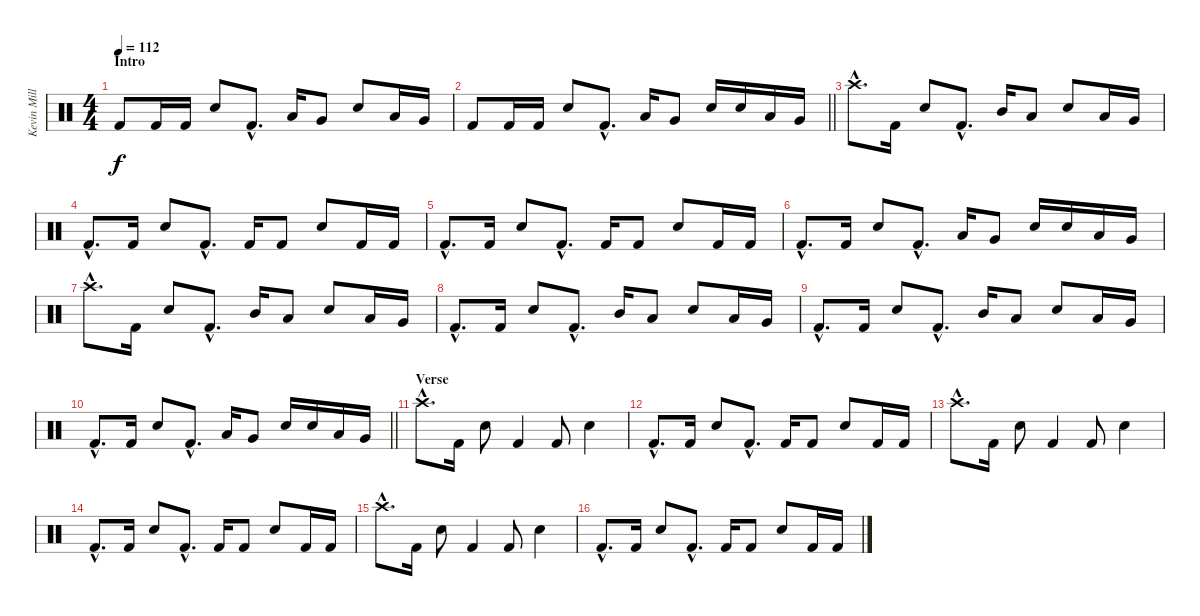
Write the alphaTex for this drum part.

\track ("Kevin Miller (Drums)" "Kevin Mill") {instrument percussion}
\staff {score}
\articulation defaults
\ts (4 4)
\section ("" "Intro")
\tempo 112
\clef neutral
\ks c "Kick (hit) 2".8{dy f} "Kick (hit) 2".16 "Kick (hit) 2".16 "Electric Snare (hit)".8 "Kick (hit) 2"{hac}.8{d} "Low Tom (hit)".16 "Very Low Tom (hit)".8 "Electric Snare (hit)".8 "Low Tom (hit)".16 "Very Low Tom (hit)".16
|
\barLineRight lightlight "Kick (hit) 2".8 "Kick (hit) 2".16 "Kick (hit) 2".16 "Electric Snare (hit)".8 "Kick (hit) 2"{hac}.8{d} "Low Tom (hit)".16 "Very Low Tom (hit)".8 "Electric Snare (hit)".16 "Electric Snare (hit)".16 "Low Tom (hit)".16 "Very Low Tom (hit)".16
|
"Crash high (hit)"{hac}.8{d} "Kick (hit) 2".16 "Electric Snare (hit)".8 "Kick (hit) 2"{hac}.8{d} "Mid Tom (hit)".16 "Low Tom (hit)".8 "Electric Snare (hit)".8 "Low Tom (hit)".16 "Very Low Tom (hit)".16 |
"Kick (hit) 2"{hac}.8{d} "Kick (hit) 2".16 "Electric Snare (hit)".8 "Kick (hit) 2"{hac}.8{d} "Kick (hit) 2".16 "Kick (hit) 2".8 "Electric Snare (hit)".8 "Kick (hit) 2".16 "Kick (hit) 2".16 |
"Kick (hit) 2"{hac}.8{d} "Kick (hit) 2".16 "Electric Snare (hit)".8 "Kick (hit) 2"{hac}.8{d} "Kick (hit) 2".16 "Kick (hit) 2".8 "Electric Snare (hit)".8 "Kick (hit) 2".16 "Kick (hit) 2".16 |
"Kick (hit) 2"{hac}.8{d} "Kick (hit) 2".16 "Electric Snare (hit)".8 "Kick (hit) 2"{hac}.8{d} "Low Tom (hit)".16 "Very Low Tom (hit)".8 "Electric Snare (hit)".16 "Electric Snare (hit)".16 "Low Tom (hit)".16 "Very Low Tom (hit)".16 |
"Crash high (hit)"{hac}.8{d} "Kick (hit) 2".16 "Electric Snare (hit)".8 "Kick (hit) 2"{hac}.8{d} "Mid Tom (hit)".16 "Low Tom (hit)".8 "Electric Snare (hit)".8 "Low Tom (hit)".16 "Very Low Tom (hit)".16 |
"Kick (hit) 2"{hac}.8{d} "Kick (hit) 2".16 "Electric Snare (hit)".8 "Kick (hit) 2"{hac}.8{d} "Mid Tom (hit)".16 "Low Tom (hit)".8 "Electric Snare (hit)".8 "Low Tom (hit)".16 "Very Low Tom (hit)".16 |
"Kick (hit) 2"{hac}.8{d} "Kick (hit) 2".16 "Electric Snare (hit)".8 "Kick (hit) 2"{hac}.8{d} "Mid Tom (hit)".16 "Low Tom (hit)".8 "Electric Snare (hit)".8 "Low Tom (hit)".16 "Very Low Tom (hit)".16 |
\barLineRight lightlight "Kick (hit) 2"{hac}.8{d} "Kick (hit) 2".16 "Electric Snare (hit)".8 "Kick (hit) 2"{hac}.8{d} "Low Tom (hit)".16 "Very Low Tom (hit)".8 "Electric Snare (hit)".16 "Electric Snare (hit)".16 "Low Tom (hit)".16 "Very Low Tom (hit)".16
|
\section ("" "Verse")
"Crash high (hit)"{hac}.8{d} "Kick (hit) 2".16 "Electric Snare (hit)".8 "Kick (hit) 2".4 "Kick (hit) 2".8 "Electric Snare (hit)".4 |
"Kick (hit) 2"{hac}.8{d} "Kick (hit) 2".16 "Electric Snare (hit)".8 "Kick (hit) 2"{hac}.8{d} "Kick (hit) 2".16 "Kick (hit) 2".8 "Electric Snare (hit)".8 "Kick (hit) 2".16 "Kick (hit) 2".16 |
"Crash high (hit)"{hac}.8{d} "Kick (hit) 2".16 "Electric Snare (hit)".8 "Kick (hit) 2".4 "Kick (hit) 2".8 "Electric Snare (hit)".4 |
"Kick (hit) 2"{hac}.8{d} "Kick (hit) 2".16 "Electric Snare (hit)".8 "Kick (hit) 2"{hac}.8{d} "Kick (hit) 2".16 "Kick (hit) 2".8 "Electric Snare (hit)".8 "Kick (hit) 2".16 "Kick (hit) 2".16 |
"Crash high (hit)"{hac}.8{d} "Kick (hit) 2".16 "Electric Snare (hit)".8 "Kick (hit) 2".4 "Kick (hit) 2".8 "Electric Snare (hit)".4 |
"Kick (hit) 2"{hac}.8{d} "Kick (hit) 2".16 "Electric Snare (hit)".8 "Kick (hit) 2"{hac}.8{d} "Kick (hit) 2".16 "Kick (hit) 2".8 "Electric Snare (hit)".8 "Kick (hit) 2".16 "Kick (hit) 2".16
